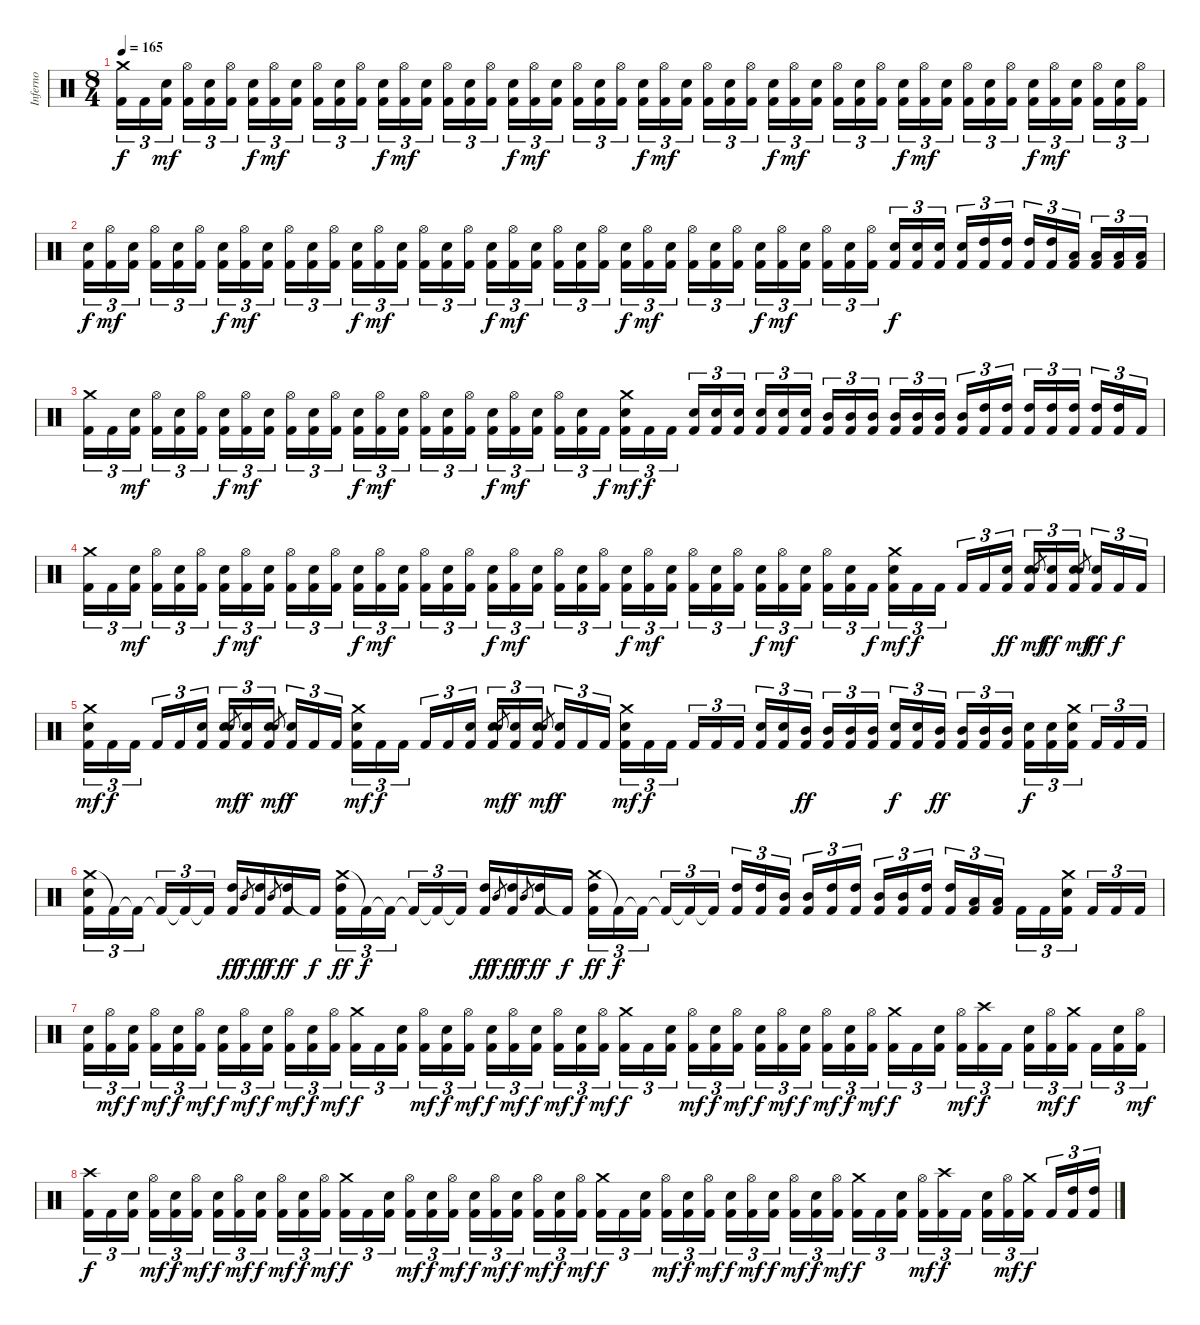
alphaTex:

\track ("Inferno" "Inferno") {instrument percussion}
\staff {score}
\articulation defaults
\ts (8 4)
\tempo 165
\clef neutral
\ks c
("Crash medium (hit)" "Kick (hit) 2").16{tu (3 2) dy f} "Kick (hit) 2".16{tu (3 2)} ("Snare (hit) 2" "Kick (hit) 2").16{tu (3 2) dy mf beam splitsecondary} ("Hi-Hat (open)" "Kick (hit) 2").16{tu (3 2)} ("Snare (hit) 2" "Kick (hit) 2").16{tu (3 2)} ("Hi-Hat (open)" "Kick (hit) 2").16{tu (3 2)} ("Snare (hit) 2" "Kick (hit) 2").16{tu (3 2) dy f} ("Hi-Hat (open)" "Kick (hit) 2").16{tu (3 2) dy mf} ("Snare (hit) 2" "Kick (hit) 2").16{tu (3 2) beam splitsecondary} ("Hi-Hat (open)" "Kick (hit) 2").16{tu (3 2)} ("Snare (hit) 2" "Kick (hit) 2").16{tu (3 2)} ("Hi-Hat (open)" "Kick (hit) 2").16{tu (3 2)} ("Snare (hit) 2" "Kick (hit) 2").16{tu (3 2) dy f} ("Hi-Hat (open)" "Kick (hit) 2").16{tu (3 2) dy mf} ("Snare (hit) 2" "Kick (hit) 2").16{tu (3 2) beam splitsecondary} ("Hi-Hat (open)" "Kick (hit) 2").16{tu (3 2)} ("Snare (hit) 2" "Kick (hit) 2").16{tu (3 2)} ("Hi-Hat (open)" "Kick (hit) 2").16{tu (3 2)} ("Snare (hit) 2" "Kick (hit) 2").16{tu (3 2) dy f} ("Hi-Hat (open)" "Kick (hit) 2").16{tu (3 2) dy mf} ("Snare (hit) 2" "Kick (hit) 2").16{tu (3 2) beam splitsecondary} ("Hi-Hat (open)" "Kick (hit) 2").16{tu (3 2)} ("Snare (hit) 2" "Kick (hit) 2").16{tu (3 2)} ("Hi-Hat (open)" "Kick (hit) 2").16{tu (3 2)} ("Snare (hit) 2" "Kick (hit) 2").16{tu (3 2) dy f} ("Hi-Hat (open)" "Kick (hit) 2").16{tu (3 2) dy mf} ("Snare (hit) 2" "Kick (hit) 2").16{tu (3 2) beam splitsecondary} ("Hi-Hat (open)" "Kick (hit) 2").16{tu (3 2)} ("Snare (hit) 2" "Kick (hit) 2").16{tu (3 2)} ("Hi-Hat (open)" "Kick (hit) 2").16{tu (3 2)} ("Snare (hit) 2" "Kick (hit) 2").16{tu (3 2) dy f} ("Hi-Hat (open)" "Kick (hit) 2").16{tu (3 2) dy mf} ("Snare (hit) 2" "Kick (hit) 2").16{tu (3 2) beam splitsecondary} ("Hi-Hat (open)" "Kick (hit) 2").16{tu (3 2)} ("Snare (hit) 2" "Kick (hit) 2").16{tu (3 2)} ("Hi-Hat (open)" "Kick (hit) 2").16{tu (3 2)} ("Snare (hit) 2" "Kick (hit) 2").16{tu (3 2) dy f} ("Hi-Hat (open)" "Kick (hit) 2").16{tu (3 2) dy mf} ("Snare (hit) 2" "Kick (hit) 2").16{tu (3 2) beam splitsecondary} ("Hi-Hat (open)" "Kick (hit) 2").16{tu (3 2)} ("Snare (hit) 2" "Kick (hit) 2").16{tu (3 2)} ("Hi-Hat (open)" "Kick (hit) 2").16{tu (3 2)} ("Snare (hit) 2" "Kick (hit) 2").16{tu (3 2) dy f} ("Hi-Hat (open)" "Kick (hit) 2").16{tu (3 2) dy mf} ("Snare (hit) 2" "Kick (hit) 2").16{tu (3 2) beam splitsecondary} ("Hi-Hat (open)" "Kick (hit) 2").16{tu (3 2)} ("Snare (hit) 2" "Kick (hit) 2").16{tu (3 2)} ("Hi-Hat (open)" "Kick (hit) 2").16{tu (3 2)} |
("Snare (hit) 2" "Kick (hit) 2").16{tu (3 2) dy f} ("Hi-Hat (open)" "Kick (hit) 2").16{tu (3 2) dy mf} ("Snare (hit) 2" "Kick (hit) 2").16{tu (3 2) beam splitsecondary} ("Hi-Hat (open)" "Kick (hit) 2").16{tu (3 2)} ("Snare (hit) 2" "Kick (hit) 2").16{tu (3 2)} ("Hi-Hat (open)" "Kick (hit) 2").16{tu (3 2)} ("Snare (hit) 2" "Kick (hit) 2").16{tu (3 2) dy f} ("Hi-Hat (open)" "Kick (hit) 2").16{tu (3 2) dy mf} ("Snare (hit) 2" "Kick (hit) 2").16{tu (3 2) beam splitsecondary} ("Hi-Hat (open)" "Kick (hit) 2").16{tu (3 2)} ("Snare (hit) 2" "Kick (hit) 2").16{tu (3 2)} ("Hi-Hat (open)" "Kick (hit) 2").16{tu (3 2)} ("Snare (hit) 2" "Kick (hit) 2").16{tu (3 2) dy f} ("Hi-Hat (open)" "Kick (hit) 2").16{tu (3 2) dy mf} ("Snare (hit) 2" "Kick (hit) 2").16{tu (3 2) beam splitsecondary} ("Hi-Hat (open)" "Kick (hit) 2").16{tu (3 2)} ("Snare (hit) 2" "Kick (hit) 2").16{tu (3 2)} ("Hi-Hat (open)" "Kick (hit) 2").16{tu (3 2)} ("Snare (hit) 2" "Kick (hit) 2").16{tu (3 2) dy f} ("Hi-Hat (open)" "Kick (hit) 2").16{tu (3 2) dy mf} ("Snare (hit) 2" "Kick (hit) 2").16{tu (3 2) beam splitsecondary} ("Hi-Hat (open)" "Kick (hit) 2").16{tu (3 2)} ("Snare (hit) 2" "Kick (hit) 2").16{tu (3 2)} ("Hi-Hat (open)" "Kick (hit) 2").16{tu (3 2)} ("Snare (hit) 2" "Kick (hit) 2").16{tu (3 2) dy f} ("Hi-Hat (open)" "Kick (hit) 2").16{tu (3 2) dy mf} ("Snare (hit) 2" "Kick (hit) 2").16{tu (3 2) beam splitsecondary} ("Hi-Hat (open)" "Kick (hit) 2").16{tu (3 2)} ("Snare (hit) 2" "Kick (hit) 2").16{tu (3 2)} ("Hi-Hat (open)" "Kick (hit) 2").16{tu (3 2)} ("Snare (hit) 2" "Kick (hit) 2").16{tu (3 2) dy f} ("Hi-Hat (open)" "Kick (hit) 2").16{tu (3 2) dy mf} ("Snare (hit) 2" "Kick (hit) 2").16{tu (3 2) beam splitsecondary} ("Hi-Hat (open)" "Kick (hit) 2").16{tu (3 2)} ("Snare (hit) 2" "Kick (hit) 2").16{tu (3 2)} ("Hi-Hat (open)" "Kick (hit) 2").16{tu (3 2)} ("Snare (hit) 2" "Kick (hit) 2").16{tu (3 2) dy f} ("Snare (hit) 2" "Kick (hit) 2").16{tu (3 2)} ("Snare (hit) 2" "Kick (hit) 2").16{tu (3 2) beam splitsecondary} ("Snare (hit) 2" "Kick (hit) 2").16{tu (3 2)} ("High Tom (hit)" "Kick (hit) 2").16{tu (3 2)} ("High Tom (hit)" "Kick (hit) 2").16{tu (3 2)} ("High Tom (hit)" "Kick (hit) 2").16{tu (3 2)} ("High Tom (hit)" "Kick (hit) 2").16{tu (3 2)} ("Low Tom (hit)" "Kick (hit) 2").16{tu (3 2) beam splitsecondary} ("Low Tom (hit)" "Kick (hit) 2").16{tu (3 2)} ("Low Tom (hit)" "Kick (hit) 2").16{tu (3 2)} ("Low Tom (hit)" "Kick (hit) 2").16{tu (3 2)} |
("Crash medium (hit)" "Kick (hit) 2").16{tu (3 2)} "Kick (hit) 2".16{tu (3 2)} ("Snare (hit) 2" "Kick (hit) 2").16{tu (3 2) dy mf beam splitsecondary} ("Hi-Hat (open)" "Kick (hit) 2").16{tu (3 2)} ("Snare (hit) 2" "Kick (hit) 2").16{tu (3 2)} ("Hi-Hat (open)" "Kick (hit) 2").16{tu (3 2)} ("Snare (hit) 2" "Kick (hit) 2").16{tu (3 2) dy f} ("Hi-Hat (open)" "Kick (hit) 2").16{tu (3 2) dy mf} ("Snare (hit) 2" "Kick (hit) 2").16{tu (3 2) beam splitsecondary} ("Hi-Hat (open)" "Kick (hit) 2").16{tu (3 2)} ("Snare (hit) 2" "Kick (hit) 2").16{tu (3 2)} ("Hi-Hat (open)" "Kick (hit) 2").16{tu (3 2)} ("Snare (hit) 2" "Kick (hit) 2").16{tu (3 2) dy f} ("Hi-Hat (open)" "Kick (hit) 2").16{tu (3 2) dy mf} ("Snare (hit) 2" "Kick (hit) 2").16{tu (3 2) beam splitsecondary} ("Hi-Hat (open)" "Kick (hit) 2").16{tu (3 2)} ("Snare (hit) 2" "Kick (hit) 2").16{tu (3 2)} ("Hi-Hat (open)" "Kick (hit) 2").16{tu (3 2)} ("Snare (hit) 2" "Kick (hit) 2").16{tu (3 2) dy f} ("Hi-Hat (open)" "Kick (hit) 2").16{tu (3 2) dy mf} ("Snare (hit) 2" "Kick (hit) 2").16{tu (3 2) beam splitsecondary} ("Hi-Hat (open)" "Kick (hit) 2").16{tu (3 2)} ("Snare (hit) 2" "Kick (hit) 2").16{tu (3 2)} "Kick (hit) 2".16{tu (3 2) dy f} ("Snare (hit) 2" "Crash medium (hit)" "Kick (hit) 2").16{tu (3 2) dy mf} "Kick (hit) 2".16{tu (3 2) dy f} "Kick (hit) 2".16{tu (3 2) beam splitsecondary} ("Snare (hit) 2" "Kick (hit) 2").16{tu (3 2)} ("Snare (hit) 2" "Kick (hit) 2").16{tu (3 2)} ("Snare (hit) 2" "Kick (hit) 2").16{tu (3 2)} ("Snare (hit) 2" "Kick (hit) 2").16{tu (3 2)} ("Snare (hit) 2" "Kick (hit) 2").16{tu (3 2)} ("Snare (hit) 2" "Kick (hit) 2").16{tu (3 2) beam splitsecondary} ("Mid Tom (hit)" "Kick (hit) 2").16{tu (3 2)} ("Mid Tom (hit)" "Kick (hit) 2").16{tu (3 2)} ("Mid Tom (hit)" "Kick (hit) 2").16{tu (3 2)} ("Mid Tom (hit)" "Kick (hit) 2").16{tu (3 2)} ("Mid Tom (hit)" "Kick (hit) 2").16{tu (3 2)} ("Mid Tom (hit)" "Kick (hit) 2").16{tu (3 2) beam splitsecondary} ("Mid Tom (hit)" "Kick (hit) 2").16{tu (3 2)} ("High Tom (hit)" "Kick (hit) 2").16{tu (3 2)} ("High Tom (hit)" "Kick (hit) 2").16{tu (3 2)} ("High Tom (hit)" "Kick (hit) 2").16{tu (3 2)} ("High Tom (hit)" "Kick (hit) 2").16{tu (3 2)} ("High Tom (hit)" "Kick (hit) 2").16{tu (3 2) beam splitsecondary} ("High Tom (hit)" "Kick (hit) 2").16{tu (3 2)} ("High Tom (hit)" "Kick (hit) 2").16{tu (3 2)} "Kick (hit) 2".16{tu (3 2)} |
("Crash medium (hit)" "Kick (hit) 2").16{tu (3 2)} "Kick (hit) 2".16{tu (3 2)} ("Snare (hit) 2" "Kick (hit) 2").16{tu (3 2) dy mf beam splitsecondary} ("Hi-Hat (open)" "Kick (hit) 2").16{tu (3 2)} ("Snare (hit) 2" "Kick (hit) 2").16{tu (3 2)} ("Hi-Hat (open)" "Kick (hit) 2").16{tu (3 2)} ("Snare (hit) 2" "Kick (hit) 2").16{tu (3 2) dy f} ("Hi-Hat (open)" "Kick (hit) 2").16{tu (3 2) dy mf} ("Snare (hit) 2" "Kick (hit) 2").16{tu (3 2) beam splitsecondary} ("Hi-Hat (open)" "Kick (hit) 2").16{tu (3 2)} ("Snare (hit) 2" "Kick (hit) 2").16{tu (3 2)} ("Hi-Hat (open)" "Kick (hit) 2").16{tu (3 2)} ("Snare (hit) 2" "Kick (hit) 2").16{tu (3 2) dy f} ("Hi-Hat (open)" "Kick (hit) 2").16{tu (3 2) dy mf} ("Snare (hit) 2" "Kick (hit) 2").16{tu (3 2) beam splitsecondary} ("Hi-Hat (open)" "Kick (hit) 2").16{tu (3 2)} ("Snare (hit) 2" "Kick (hit) 2").16{tu (3 2)} ("Hi-Hat (open)" "Kick (hit) 2").16{tu (3 2)} ("Snare (hit) 2" "Kick (hit) 2").16{tu (3 2) dy f} ("Hi-Hat (open)" "Kick (hit) 2").16{tu (3 2) dy mf} ("Snare (hit) 2" "Kick (hit) 2").16{tu (3 2) beam splitsecondary} ("Hi-Hat (open)" "Kick (hit) 2").16{tu (3 2)} ("Snare (hit) 2" "Kick (hit) 2").16{tu (3 2)} ("Hi-Hat (open)" "Kick (hit) 2").16{tu (3 2)} ("Snare (hit) 2" "Kick (hit) 2").16{tu (3 2) dy f} ("Hi-Hat (open)" "Kick (hit) 2").16{tu (3 2) dy mf} ("Snare (hit) 2" "Kick (hit) 2").16{tu (3 2) beam splitsecondary} ("Hi-Hat (open)" "Kick (hit) 2").16{tu (3 2)} ("Snare (hit) 2" "Kick (hit) 2").16{tu (3 2)} ("Hi-Hat (open)" "Kick (hit) 2").16{tu (3 2)} ("Snare (hit) 2" "Kick (hit) 2").16{tu (3 2) dy f} ("Hi-Hat (open)" "Kick (hit) 2").16{tu (3 2) dy mf} ("Snare (hit) 2" "Kick (hit) 2").16{tu (3 2) beam splitsecondary} ("Hi-Hat (open)" "Kick (hit) 2").16{tu (3 2)} ("Snare (hit) 2" "Kick (hit) 2").16{tu (3 2)} "Kick (hit) 2".16{tu (3 2) dy f} ("Crash medium (hit)" "Snare (hit) 2" "Kick (hit) 2").16{tu (3 2) dy mf} "Kick (hit) 2".16{tu (3 2) dy f} "Kick (hit) 2".16{tu (3 2) beam splitsecondary} "Kick (hit) 2".16{tu (3 2)} "Kick (hit) 2".16{tu (3 2)} ("Snare (hit) 2" "Kick (hit) 2").16{tu (3 2) dy ff} ("Snare (hit) 2" "Kick (hit) 2").16{tu (3 2)} "Snare (hit) 2".8{gr dy mf} ("Snare (hit) 2" "Kick (hit) 2").16{tu (3 2) dy ff} ("Snare (hit) 2" "Kick (hit) 2").16{tu (3 2)} "Snare (hit) 2".8{gr dy mf beam splitsecondary} ("Snare (hit) 2" "Kick (hit) 2").16{tu (3 2) dy ff} "Kick (hit) 2".16{tu (3 2) dy f} "Kick (hit) 2".16{tu (3 2)} |
("Crash medium (hit)" "Snare (hit) 2" "Kick (hit) 2").16{tu (3 2) dy mf} "Kick (hit) 2".16{tu (3 2) dy f} "Kick (hit) 2".16{tu (3 2) beam splitsecondary} "Kick (hit) 2".16{tu (3 2)} "Kick (hit) 2".16{tu (3 2)} ("Snare (hit) 2" "Kick (hit) 2").16{tu (3 2)} ("Snare (hit) 2" "Kick (hit) 2").16{tu (3 2)} "Snare (hit) 2".8{gr dy mf} ("Snare (hit) 2" "Kick (hit) 2").16{tu (3 2) dy f} ("Snare (hit) 2" "Kick (hit) 2").16{tu (3 2)} "Snare (hit) 2".8{gr dy mf beam splitsecondary} ("Snare (hit) 2" "Kick (hit) 2").16{tu (3 2) dy f} "Kick (hit) 2".16{tu (3 2)} "Kick (hit) 2".16{tu (3 2)} ("Crash medium (hit)" "Snare (hit) 2" "Kick (hit) 2").16{tu (3 2) dy mf} "Kick (hit) 2".16{tu (3 2) dy f} "Kick (hit) 2".16{tu (3 2) beam splitsecondary} "Kick (hit) 2".16{tu (3 2)} "Kick (hit) 2".16{tu (3 2)} ("Snare (hit) 2" "Kick (hit) 2").16{tu (3 2)} ("Snare (hit) 2" "Kick (hit) 2").16{tu (3 2)} "Snare (hit) 2".8{gr dy mf} ("Snare (hit) 2" "Kick (hit) 2").16{tu (3 2) dy f} ("Snare (hit) 2" "Kick (hit) 2").16{tu (3 2)} "Snare (hit) 2".8{gr dy mf beam splitsecondary} ("Snare (hit) 2" "Kick (hit) 2").16{tu (3 2) dy f} "Kick (hit) 2".16{tu (3 2)} "Kick (hit) 2".16{tu (3 2)} ("Crash medium (hit)" "Snare (hit) 2" "Kick (hit) 2").16{tu (3 2) dy mf} "Kick (hit) 2".16{tu (3 2) dy f} "Kick (hit) 2".16{tu (3 2) beam splitsecondary} "Kick (hit) 2".16{tu (3 2)} "Kick (hit) 2".16{tu (3 2)} "Kick (hit) 2".16{tu (3 2)} ("Snare (hit) 2" "Kick (hit) 2").16{tu (3 2)} ("Snare (hit) 2" "Kick (hit) 2").16{tu (3 2)} ("Mid Tom (hit)" "Kick (hit) 2").16{tu (3 2) dy ff beam splitsecondary} ("Mid Tom (hit)" "Kick (hit) 2").16{tu (3 2)} ("Mid Tom (hit)" "Kick (hit) 2").16{tu (3 2)} ("Mid Tom (hit)" "Kick (hit) 2").16{tu (3 2)} ("Snare (hit) 2" "Kick (hit) 2").16{tu (3 2) dy f} ("Snare (hit) 2" "Kick (hit) 2").16{tu (3 2)} ("Mid Tom (hit)" "Kick (hit) 2").16{tu (3 2) dy ff beam splitsecondary} ("Mid Tom (hit)" "Kick (hit) 2").16{tu (3 2)} ("Mid Tom (hit)" "Kick (hit) 2").16{tu (3 2)} ("Mid Tom (hit)" "Kick (hit) 2").16{tu (3 2)} ("Snare (hit) 2" "Kick (hit) 2").16{tu (3 2) dy f} ("Snare (hit) 2" "Kick (hit) 2").16{tu (3 2)} ("Crash medium (hit)" "Snare (hit) 2" "Kick (hit) 2").16{tu (3 2) beam splitsecondary} "Kick (hit) 2".16{tu (3 2)} "Kick (hit) 2".16{tu (3 2)} "Kick (hit) 2".16{tu (3 2)} |
("Crash medium (hit)" "Snare (hit) 2" "Kick (hit) 2").16{tu (3 2)} "Kick (hit) 2"{t}.16{tu (3 2)} "Kick (hit) 2"{t}.16{tu (3 2) beam splitsecondary} "Kick (hit) 2"{t}.16{tu (3 2)} "Kick (hit) 2"{t}.16{tu (3 2)} "Kick (hit) 2"{t}.16{tu (3 2)} ("High Tom (hit)" "Kick (hit) 2").16{dy ff} "Mid Tom (hit)".8{gr dy f} ("High Tom (hit)" "Kick (hit) 2").16{dy ff} "Mid Tom (hit)".8{gr dy f} ("High Tom (hit)" "Kick (hit) 2").16{dy ff} "Kick (hit) 2"{t}.16{dy f} ("Crash medium (hit)" "High Tom (hit)" "Kick (hit) 2").16{tu (3 2) dy ff} "Kick (hit) 2"{t}.16{tu (3 2) dy f} "Kick (hit) 2"{t}.16{tu (3 2) beam splitsecondary} "Kick (hit) 2"{t}.16{tu (3 2)} "Kick (hit) 2"{t}.16{tu (3 2)} "Kick (hit) 2"{t}.16{tu (3 2)} ("High Tom (hit)" "Kick (hit) 2").16{dy ff} "Mid Tom (hit)".8{gr dy f} ("High Tom (hit)" "Kick (hit) 2").16{dy ff} "Mid Tom (hit)".8{gr dy f} ("High Tom (hit)" "Kick (hit) 2").16{dy ff} "Kick (hit) 2"{t}.16{dy f} ("Crash medium (hit)" "High Tom (hit)" "Kick (hit) 2").16{tu (3 2) dy ff} "Kick (hit) 2"{t}.16{tu (3 2) dy f} "Kick (hit) 2"{t}.16{tu (3 2) beam splitsecondary} "Kick (hit) 2"{t}.16{tu (3 2)} "Kick (hit) 2"{t}.16{tu (3 2)} "Kick (hit) 2"{t}.16{tu (3 2)} ("High Tom (hit)" "Kick (hit) 2").16{tu (3 2)} ("High Tom (hit)" "Kick (hit) 2").16{tu (3 2)} ("Mid Tom (hit)" "Kick (hit) 2").16{tu (3 2) beam splitsecondary} ("Mid Tom (hit)" "Kick (hit) 2").16{tu (3 2)} ("High Tom (hit)" "Kick (hit) 2").16{tu (3 2)} ("High Tom (hit)" "Kick (hit) 2").16{tu (3 2)} ("Mid Tom (hit)" "Kick (hit) 2").16{tu (3 2)} ("Mid Tom (hit)" "Kick (hit) 2").16{tu (3 2)} ("High Tom (hit)" "Kick (hit) 2").16{tu (3 2) beam splitsecondary} ("High Tom (hit)" "Kick (hit) 2").16{tu (3 2)} ("Low Tom (hit)" "Kick (hit) 2").16{tu (3 2)} ("Low Tom (hit)" "Kick (hit) 2").16{tu (3 2)} "Kick (hit) 2".16{tu (3 2)} "Kick (hit) 2".16{tu (3 2)} ("Crash medium (hit)" "Snare (hit) 2" "Kick (hit) 2").16{tu (3 2) beam splitsecondary} "Kick (hit) 2".16{tu (3 2)} "Kick (hit) 2".16{tu (3 2)} "Kick (hit) 2".16{tu (3 2)} |
("Snare (hit) 2" "Kick (hit) 2").16{tu (3 2)} ("Hi-Hat (open)" "Kick (hit) 2").16{tu (3 2) dy mf} ("Snare (hit) 2" "Kick (hit) 2").16{tu (3 2) dy f beam splitsecondary} ("Hi-Hat (open)" "Kick (hit) 2").16{tu (3 2) dy mf} ("Snare (hit) 2" "Kick (hit) 2").16{tu (3 2) dy f} ("Hi-Hat (open)" "Kick (hit) 2").16{tu (3 2) dy mf} ("Snare (hit) 2" "Kick (hit) 2").16{tu (3 2) dy f} ("Hi-Hat (open)" "Kick (hit) 2").16{tu (3 2) dy mf} ("Snare (hit) 2" "Kick (hit) 2").16{tu (3 2) dy f beam splitsecondary} ("Hi-Hat (open)" "Kick (hit) 2").16{tu (3 2) dy mf} ("Snare (hit) 2" "Kick (hit) 2").16{tu (3 2) dy f} ("Hi-Hat (open)" "Kick (hit) 2").16{tu (3 2) dy mf} ("Crash medium (hit)" "Kick (hit) 2").16{tu (3 2) dy f} "Kick (hit) 2".16{tu (3 2)} ("Snare (hit) 2" "Kick (hit) 2").16{tu (3 2) beam splitsecondary} ("Hi-Hat (open)" "Kick (hit) 2").16{tu (3 2) dy mf} ("Snare (hit) 2" "Kick (hit) 2").16{tu (3 2) dy f} ("Hi-Hat (open)" "Kick (hit) 2").16{tu (3 2) dy mf} ("Snare (hit) 2" "Kick (hit) 2").16{tu (3 2) dy f} ("Hi-Hat (open)" "Kick (hit) 2").16{tu (3 2) dy mf} ("Snare (hit) 2" "Kick (hit) 2").16{tu (3 2) dy f beam splitsecondary} ("Hi-Hat (open)" "Kick (hit) 2").16{tu (3 2) dy mf} ("Snare (hit) 2" "Kick (hit) 2").16{tu (3 2) dy f} ("Hi-Hat (open)" "Kick (hit) 2").16{tu (3 2) dy mf} ("Crash medium (hit)" "Kick (hit) 2").16{tu (3 2) dy f} "Kick (hit) 2".16{tu (3 2)} ("Snare (hit) 2" "Kick (hit) 2").16{tu (3 2) beam splitsecondary} ("Hi-Hat (open)" "Kick (hit) 2").16{tu (3 2) dy mf} ("Snare (hit) 2" "Kick (hit) 2").16{tu (3 2) dy f} ("Hi-Hat (open)" "Kick (hit) 2").16{tu (3 2) dy mf} ("Snare (hit) 2" "Kick (hit) 2").16{tu (3 2) dy f} ("Hi-Hat (open)" "Kick (hit) 2").16{tu (3 2) dy mf} ("Snare (hit) 2" "Kick (hit) 2").16{tu (3 2) dy f beam splitsecondary} ("Hi-Hat (open)" "Kick (hit) 2").16{tu (3 2) dy mf} ("Snare (hit) 2" "Kick (hit) 2").16{tu (3 2) dy f} ("Hi-Hat (open)" "Kick (hit) 2").16{tu (3 2) dy mf} ("Crash medium (hit)" "Kick (hit) 2").16{tu (3 2) dy f} "Kick (hit) 2".16{tu (3 2)} ("Snare (hit) 2" "Kick (hit) 2").16{tu (3 2) beam splitsecondary} ("Hi-Hat (open)" "Kick (hit) 2").16{tu (3 2) dy mf} ("Crash high (hit)" "Kick (hit) 2").16{tu (3 2) dy f} "Kick (hit) 2".16{tu (3 2)} ("Snare (hit) 2" "Kick (hit) 2").16{tu (3 2)} ("Hi-Hat (open)" "Kick (hit) 2").16{tu (3 2) dy mf} ("Crash medium (hit)" "Kick (hit) 2").16{tu (3 2) dy f beam splitsecondary} "Kick (hit) 2".16{tu (3 2)} ("Snare (hit) 2" "Kick (hit) 2").16{tu (3 2)} ("Hi-Hat (open)" "Kick (hit) 2").16{tu (3 2) dy mf} |
("Crash high (hit)" "Kick (hit) 2").16{tu (3 2) dy f} "Kick (hit) 2".16{tu (3 2)} ("Snare (hit) 2" "Kick (hit) 2").16{tu (3 2) beam splitsecondary} ("Hi-Hat (open)" "Kick (hit) 2").16{tu (3 2) dy mf} ("Snare (hit) 2" "Kick (hit) 2").16{tu (3 2) dy f} ("Hi-Hat (open)" "Kick (hit) 2").16{tu (3 2) dy mf} ("Snare (hit) 2" "Kick (hit) 2").16{tu (3 2) dy f} ("Hi-Hat (open)" "Kick (hit) 2").16{tu (3 2) dy mf} ("Snare (hit) 2" "Kick (hit) 2").16{tu (3 2) dy f beam splitsecondary} ("Hi-Hat (open)" "Kick (hit) 2").16{tu (3 2) dy mf} ("Snare (hit) 2" "Kick (hit) 2").16{tu (3 2) dy f} ("Hi-Hat (open)" "Kick (hit) 2").16{tu (3 2) dy mf} ("Crash medium (hit)" "Kick (hit) 2").16{tu (3 2) dy f} "Kick (hit) 2".16{tu (3 2)} ("Snare (hit) 2" "Kick (hit) 2").16{tu (3 2) beam splitsecondary} ("Hi-Hat (open)" "Kick (hit) 2").16{tu (3 2) dy mf} ("Snare (hit) 2" "Kick (hit) 2").16{tu (3 2) dy f} ("Hi-Hat (open)" "Kick (hit) 2").16{tu (3 2) dy mf} ("Snare (hit) 2" "Kick (hit) 2").16{tu (3 2) dy f} ("Hi-Hat (open)" "Kick (hit) 2").16{tu (3 2) dy mf} ("Snare (hit) 2" "Kick (hit) 2").16{tu (3 2) dy f beam splitsecondary} ("Hi-Hat (open)" "Kick (hit) 2").16{tu (3 2) dy mf} ("Snare (hit) 2" "Kick (hit) 2").16{tu (3 2) dy f} ("Hi-Hat (open)" "Kick (hit) 2").16{tu (3 2) dy mf} ("Crash medium (hit)" "Kick (hit) 2").16{tu (3 2) dy f} "Kick (hit) 2".16{tu (3 2)} ("Snare (hit) 2" "Kick (hit) 2").16{tu (3 2) beam splitsecondary} ("Hi-Hat (open)" "Kick (hit) 2").16{tu (3 2) dy mf} ("Snare (hit) 2" "Kick (hit) 2").16{tu (3 2) dy f} ("Hi-Hat (open)" "Kick (hit) 2").16{tu (3 2) dy mf} ("Snare (hit) 2" "Kick (hit) 2").16{tu (3 2) dy f} ("Hi-Hat (open)" "Kick (hit) 2").16{tu (3 2) dy mf} ("Snare (hit) 2" "Kick (hit) 2").16{tu (3 2) dy f beam splitsecondary} ("Hi-Hat (open)" "Kick (hit) 2").16{tu (3 2) dy mf} ("Snare (hit) 2" "Kick (hit) 2").16{tu (3 2) dy f} ("Hi-Hat (open)" "Kick (hit) 2").16{tu (3 2) dy mf} ("Crash medium (hit)" "Kick (hit) 2").16{tu (3 2) dy f} "Kick (hit) 2".16{tu (3 2)} ("Snare (hit) 2" "Kick (hit) 2").16{tu (3 2) beam splitsecondary} ("Hi-Hat (open)" "Kick (hit) 2").16{tu (3 2) dy mf} ("Crash high (hit)" "Kick (hit) 2").16{tu (3 2) dy f} "Kick (hit) 2".16{tu (3 2)} ("Snare (hit) 2" "Kick (hit) 2").16{tu (3 2)} ("Hi-Hat (open)" "Kick (hit) 2").16{tu (3 2) dy mf} ("Crash medium (hit)" "Kick (hit) 2").16{tu (3 2) dy f beam splitsecondary} "Kick (hit) 2".16{tu (3 2)} ("High Tom (hit)" "Kick (hit) 2").16{tu (3 2)} ("High Tom (hit)" "Kick (hit) 2").16{tu (3 2)}
